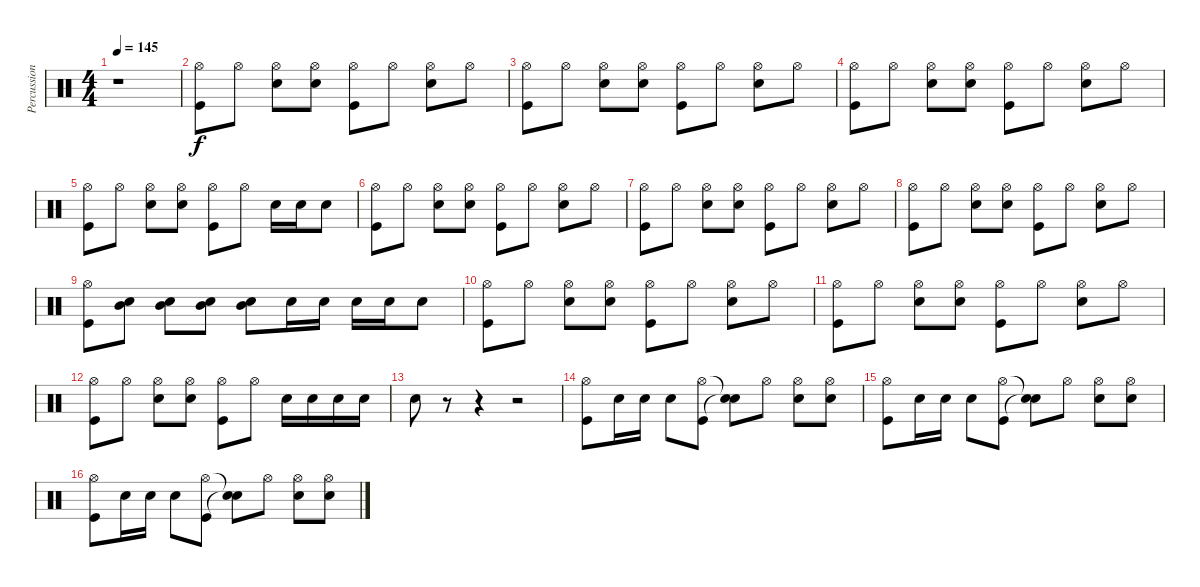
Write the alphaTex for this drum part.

\track ("Percussion" "Percussion") {instrument percussion}
\staff {score}
\articulation defaults
\ts (4 4)
\tempo 145
\clef neutral
\ks c
r.1{dy f} |
("Hi-Hat (open)" "Kick (hit)").8 "Hi-Hat (open)".8 ("Hi-Hat (open)" "Snare (hit) 2").8 ("Hi-Hat (open)" "Snare (hit) 2").8 ("Hi-Hat (open)" "Kick (hit)").8 "Hi-Hat (open)".8 ("Hi-Hat (open)" "Snare (hit) 2").8 "Hi-Hat (open)".8 |
("Hi-Hat (open)" "Kick (hit)").8 "Hi-Hat (open)".8 ("Hi-Hat (open)" "Snare (hit) 2").8 ("Hi-Hat (open)" "Snare (hit) 2").8 ("Hi-Hat (open)" "Kick (hit)").8 "Hi-Hat (open)".8 ("Hi-Hat (open)" "Snare (hit) 2").8 "Hi-Hat (open)".8 |
("Hi-Hat (open)" "Kick (hit)").8 "Hi-Hat (open)".8 ("Hi-Hat (open)" "Snare (hit) 2").8 ("Hi-Hat (open)" "Snare (hit) 2").8 ("Hi-Hat (open)" "Kick (hit)").8 "Hi-Hat (open)".8 ("Hi-Hat (open)" "Snare (hit) 2").8 "Hi-Hat (open)".8 |
("Hi-Hat (open)" "Kick (hit)").8 "Hi-Hat (open)".8 ("Hi-Hat (open)" "Snare (hit) 2").8 ("Hi-Hat (open)" "Snare (hit) 2").8 ("Hi-Hat (open)" "Kick (hit)").8 "Hi-Hat (open)".8 "Snare (hit) 2".16 "Snare (hit) 2".16 "Snare (hit) 2".8 |
("Hi-Hat (open)" "Kick (hit)").8 "Hi-Hat (open)".8 ("Hi-Hat (open)" "Snare (hit) 2").8 ("Hi-Hat (open)" "Snare (hit) 2").8 ("Hi-Hat (open)" "Kick (hit)").8 "Hi-Hat (open)".8 ("Hi-Hat (open)" "Snare (hit) 2").8 "Hi-Hat (open)".8 |
("Hi-Hat (open)" "Kick (hit)").8 "Hi-Hat (open)".8 ("Hi-Hat (open)" "Snare (hit) 2").8 ("Hi-Hat (open)" "Snare (hit) 2").8 ("Hi-Hat (open)" "Kick (hit)").8 "Hi-Hat (open)".8 ("Hi-Hat (open)" "Snare (hit) 2").8 "Hi-Hat (open)".8 |
("Hi-Hat (open)" "Kick (hit)").8 "Hi-Hat (open)".8 ("Hi-Hat (open)" "Snare (hit) 2").8 ("Hi-Hat (open)" "Snare (hit) 2").8 ("Hi-Hat (open)" "Kick (hit)").8 "Hi-Hat (open)".8 ("Hi-Hat (open)" "Snare (hit) 2").8 "Hi-Hat (open)".8 |
("Hi-Hat (open)" "Kick (hit)").8 ("Snare (hit) 2" "Mid Tom (hit)").8 ("Snare (hit) 2" "Mid Tom (hit)").8 ("Snare (hit) 2" "Mid Tom (hit)").8 ("Snare (hit) 2" "Mid Tom (hit)").8 "Snare (hit) 2".16 "Snare (hit) 2".16 "Snare (hit) 2".16 "Snare (hit) 2".16 "Snare (hit) 2".8 |
("Hi-Hat (open)" "Kick (hit)").8 "Hi-Hat (open)".8 ("Hi-Hat (open)" "Snare (hit) 2").8 ("Hi-Hat (open)" "Snare (hit) 2").8 ("Hi-Hat (open)" "Kick (hit)").8 "Hi-Hat (open)".8 ("Hi-Hat (open)" "Snare (hit) 2").8 "Hi-Hat (open)".8 |
("Hi-Hat (open)" "Kick (hit)").8 "Hi-Hat (open)".8 ("Hi-Hat (open)" "Snare (hit) 2").8 ("Hi-Hat (open)" "Snare (hit) 2").8 ("Hi-Hat (open)" "Kick (hit)").8 "Hi-Hat (open)".8 ("Hi-Hat (open)" "Snare (hit) 2").8 "Hi-Hat (open)".8 |
("Hi-Hat (open)" "Kick (hit)").8 "Hi-Hat (open)".8 ("Hi-Hat (open)" "Snare (hit) 2").8 ("Hi-Hat (open)" "Snare (hit) 2").8 ("Hi-Hat (open)" "Kick (hit)").8 "Hi-Hat (open)".8 "Snare (hit) 2".16 "Snare (hit) 2".16 "Snare (hit) 2".16 "Snare (hit) 2".16 |
"Snare (hit) 2".8 r.8 r.4 r.2 |
("Hi-Hat (open)" "Kick (hit)").8 "Snare (hit) 2".16 "Snare (hit) 2".16 "Snare (hit) 2".8 ("Hi-Hat (open)" "Kick (hit)").8 ("Snare (hit)"{t} "Snare (hit)"{t}).8 "Hi-Hat (open)".8 ("Hi-Hat (open)" "Snare (hit) 2").8 ("Hi-Hat (open)" "Snare (hit) 2").8 |
("Hi-Hat (open)" "Kick (hit)").8 "Snare (hit) 2".16 "Snare (hit) 2".16 "Snare (hit) 2".8 ("Hi-Hat (open)" "Kick (hit)").8 ("Snare (hit)"{t} "Snare (hit)"{t}).8 "Hi-Hat (open)".8 ("Hi-Hat (open)" "Snare (hit) 2").8 ("Hi-Hat (open)" "Snare (hit) 2").8 |
("Hi-Hat (open)" "Kick (hit)").8 "Snare (hit) 2".16 "Snare (hit) 2".16 "Snare (hit) 2".8 ("Hi-Hat (open)" "Kick (hit)").8 ("Snare (hit)"{t} "Snare (hit)"{t}).8 "Hi-Hat (open)".8 ("Hi-Hat (open)" "Snare (hit) 2").8 ("Hi-Hat (open)" "Snare (hit) 2").8
